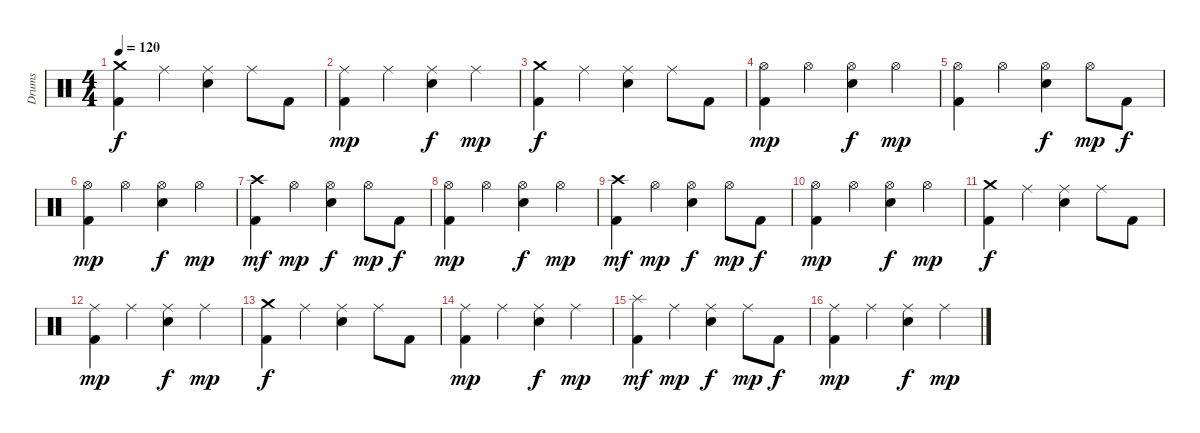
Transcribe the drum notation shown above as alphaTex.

\track ("Drums" "Drums") {instrument percussion}
\staff {score}
\articulation defaults
\ts (4 4)
\tempo 120
\clef neutral
\ks c
("Crash medium (hit)" "Kick (hit) 2").4{dy f} "Ride (middle)".4 ("Ride (middle)" "Snare (hit) 2").4 "Ride (middle)".8 "Kick (hit) 2".8 |
("Ride (middle)" "Kick (hit) 2").4{dy mp} "Ride (middle)".4 ("Ride (middle)" "Snare (hit) 2").4{dy f} "Ride (middle)".4{dy mp} |
("Crash medium (hit)" "Kick (hit) 2").4{dy f} "Ride (middle)".4 ("Ride (middle)" "Snare (hit) 2").4 "Ride (middle)".8 "Kick (hit) 2".8 |
("Hi-Hat (open)" "Kick (hit) 2").4{dy mp} "Hi-Hat (open)".4 ("Hi-Hat (open)" "Snare (hit) 2").4{dy f} "Hi-Hat (open)".4{dy mp} |
("Hi-Hat (open)" "Kick (hit) 2").4 "Hi-Hat (open)".4 ("Hi-Hat (open)" "Snare (hit) 2").4{dy f} "Hi-Hat (open)".8{dy mp} "Kick (hit) 2".8{dy f} |
("Hi-Hat (open)" "Kick (hit) 2").4{dy mp} "Hi-Hat (open)".4 ("Hi-Hat (open)" "Snare (hit) 2").4{dy f} "Hi-Hat (open)".4{dy mp} |
("Crash high (hit)" "Kick (hit) 2").4{dy mf} "Hi-Hat (open)".4{dy mp} ("Hi-Hat (open)" "Snare (hit) 2").4{dy f} "Hi-Hat (open)".8{dy mp} "Kick (hit) 2".8{dy f} |
("Hi-Hat (open)" "Kick (hit) 2").4{dy mp} "Hi-Hat (open)".4 ("Hi-Hat (open)" "Snare (hit) 2").4{dy f} "Hi-Hat (open)".4{dy mp} |
("Crash high (hit)" "Kick (hit) 2").4{dy mf} "Hi-Hat (open)".4{dy mp} ("Hi-Hat (open)" "Snare (hit) 2").4{dy f} "Hi-Hat (open)".8{dy mp} "Kick (hit) 2".8{dy f} |
("Hi-Hat (open)" "Kick (hit) 2").4{dy mp} "Hi-Hat (open)".4 ("Hi-Hat (open)" "Snare (hit) 2").4{dy f} "Hi-Hat (open)".4{dy mp} |
("Crash medium (hit)" "Kick (hit) 2").4{dy f} "Ride (middle)".4 ("Ride (middle)" "Snare (hit) 2").4 "Ride (middle)".8 "Kick (hit) 2".8 |
("Ride (middle)" "Kick (hit) 2").4{dy mp} "Ride (middle)".4 ("Ride (middle)" "Snare (hit) 2").4{dy f} "Ride (middle)".4{dy mp} |
("Crash medium (hit)" "Kick (hit) 2").4{dy f} "Ride (middle)".4 ("Ride (middle)" "Snare (hit) 2").4 "Ride (middle)".8 "Kick (hit) 2".8 |
("Ride (middle)" "Kick (hit) 2").4{dy mp} "Ride (middle)".4 ("Ride (middle)" "Snare (hit) 2").4{dy f} "Ride (middle)".4{dy mp} |
("Splash (hit)" "Kick (hit) 2").4{dy mf} "Ride (middle)".4{dy mp} ("Ride (middle)" "Snare (hit) 2").4{dy f} "Ride (middle)".8{dy mp} "Kick (hit) 2".8{dy f} |
("Ride (middle)" "Kick (hit) 2").4{dy mp} "Ride (middle)".4 ("Ride (middle)" "Snare (hit) 2").4{dy f} "Ride (middle)".4{dy mp}
